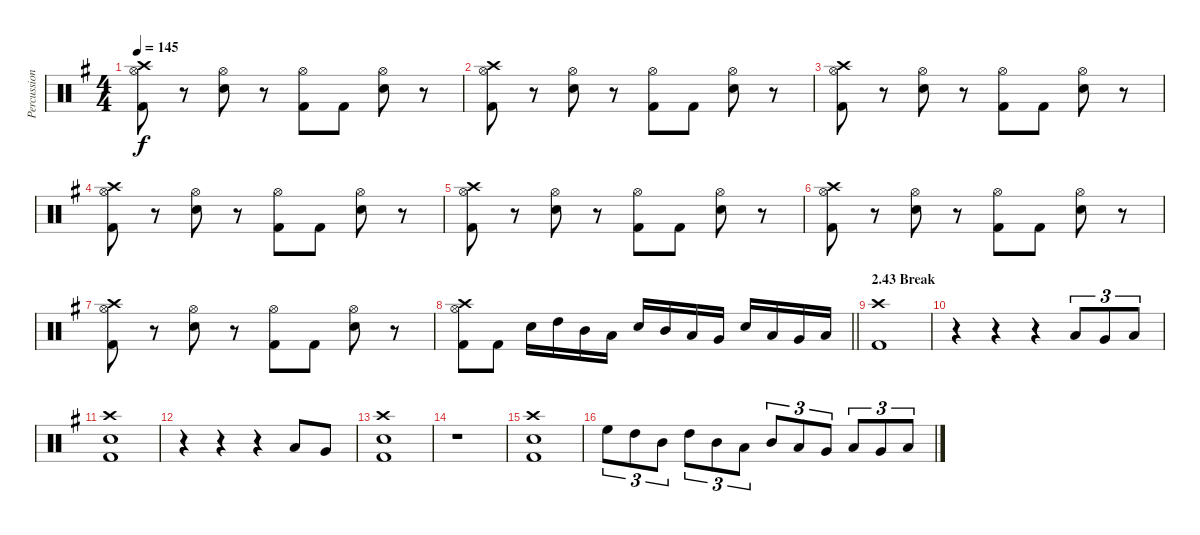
\track ("Percussion" "Percussion") {instrument percussion}
\staff {score}
\articulation defaults
\ts (4 4)
\tempo 145
\clef neutral
\ks eminor
("Crash high (hit)" "Hi-Hat (open)" "Kick (hit) 2").8{dy f} r.8 ("Hi-Hat (open)" "Electric Snare (hit)").8 r.8 ("Hi-Hat (open)" "Kick (hit) 2").8 "Kick (hit) 2".8 ("Hi-Hat (open)" "Electric Snare (hit)").8 r.8 |
("Crash high (hit)" "Hi-Hat (open)" "Kick (hit) 2").8 r.8 ("Hi-Hat (open)" "Electric Snare (hit)").8 r.8 ("Hi-Hat (open)" "Kick (hit) 2").8 "Kick (hit) 2".8 ("Hi-Hat (open)" "Electric Snare (hit)").8 r.8 |
("Crash high (hit)" "Hi-Hat (open)" "Kick (hit) 2").8 r.8 ("Hi-Hat (open)" "Electric Snare (hit)").8 r.8 ("Hi-Hat (open)" "Kick (hit) 2").8 "Kick (hit) 2".8 ("Hi-Hat (open)" "Electric Snare (hit)").8 r.8 |
("Crash high (hit)" "Hi-Hat (open)" "Kick (hit) 2").8 r.8 ("Hi-Hat (open)" "Electric Snare (hit)").8 r.8 ("Hi-Hat (open)" "Kick (hit) 2").8 "Kick (hit) 2".8 ("Hi-Hat (open)" "Electric Snare (hit)").8 r.8 |
("Crash high (hit)" "Hi-Hat (open)" "Kick (hit) 2").8 r.8 ("Hi-Hat (open)" "Electric Snare (hit)").8 r.8 ("Hi-Hat (open)" "Kick (hit) 2").8 "Kick (hit) 2".8 ("Hi-Hat (open)" "Electric Snare (hit)").8 r.8 |
("Crash high (hit)" "Hi-Hat (open)" "Kick (hit) 2").8 r.8 ("Hi-Hat (open)" "Electric Snare (hit)").8 r.8 ("Hi-Hat (open)" "Kick (hit) 2").8 "Kick (hit) 2".8 ("Hi-Hat (open)" "Electric Snare (hit)").8 r.8 |
("Crash high (hit)" "Hi-Hat (open)" "Kick (hit) 2").8 r.8 ("Hi-Hat (open)" "Electric Snare (hit)").8 r.8 ("Hi-Hat (open)" "Kick (hit) 2").8 "Kick (hit) 2".8 ("Hi-Hat (open)" "Electric Snare (hit)").8 r.8 |
\barLineRight lightlight
("Crash high (hit)" "Hi-Hat (open)" "Kick (hit) 2").8 "Kick (hit) 2".8 "Electric Snare (hit)".16 "High Tom (hit)".16 "Mid Tom (hit)".16 "Low Tom (hit)".16 "Electric Snare (hit)".16 "Mid Tom (hit)".16 "Low Tom (hit)".16 "Very Low Tom (hit)".16 "Electric Snare (hit)".16 "Low Tom (hit)".16 "Very Low Tom (hit)".16 "Low Floor Tom (hit)".16 |
\section ("" "2.43 Break")
("Crash high (hit)" "Kick (hit) 2").1 |
r.4 r.4 r.4 "Low Tom (hit)".8{tu (3 2)} "Very Low Tom (hit)".8{tu (3 2)} "Low Floor Tom (hit)".8{tu (3 2)} |
("Crash high (hit)" "Electric Snare (hit)" "Kick (hit) 2").1 |
r.4 r.4 r.4 "Low Tom (hit)".8 "Very Low Tom (hit)".8 |
("Crash high (hit)" "Electric Snare (hit)" "Kick (hit) 2").1 |
r.1 |
("Crash high (hit)" "Electric Snare (hit)" "Kick (hit) 2").1 |
"High Floor Tom (hit)".8{tu (3 2)} "High Tom (hit)".8{tu (3 2)} "Mid Tom (hit)".8{tu (3 2)} "High Tom (hit)".8{tu (3 2)} "Mid Tom (hit)".8{tu (3 2)} "Low Tom (hit)".8{tu (3 2)} "Mid Tom (hit)".8{tu (3 2)} "Low Tom (hit)".8{tu (3 2)} "Very Low Tom (hit)".8{tu (3 2)} "Low Tom (hit)".8{tu (3 2)} "Very Low Tom (hit)".8{tu (3 2)} "Low Floor Tom (hit)".8{tu (3 2)}
